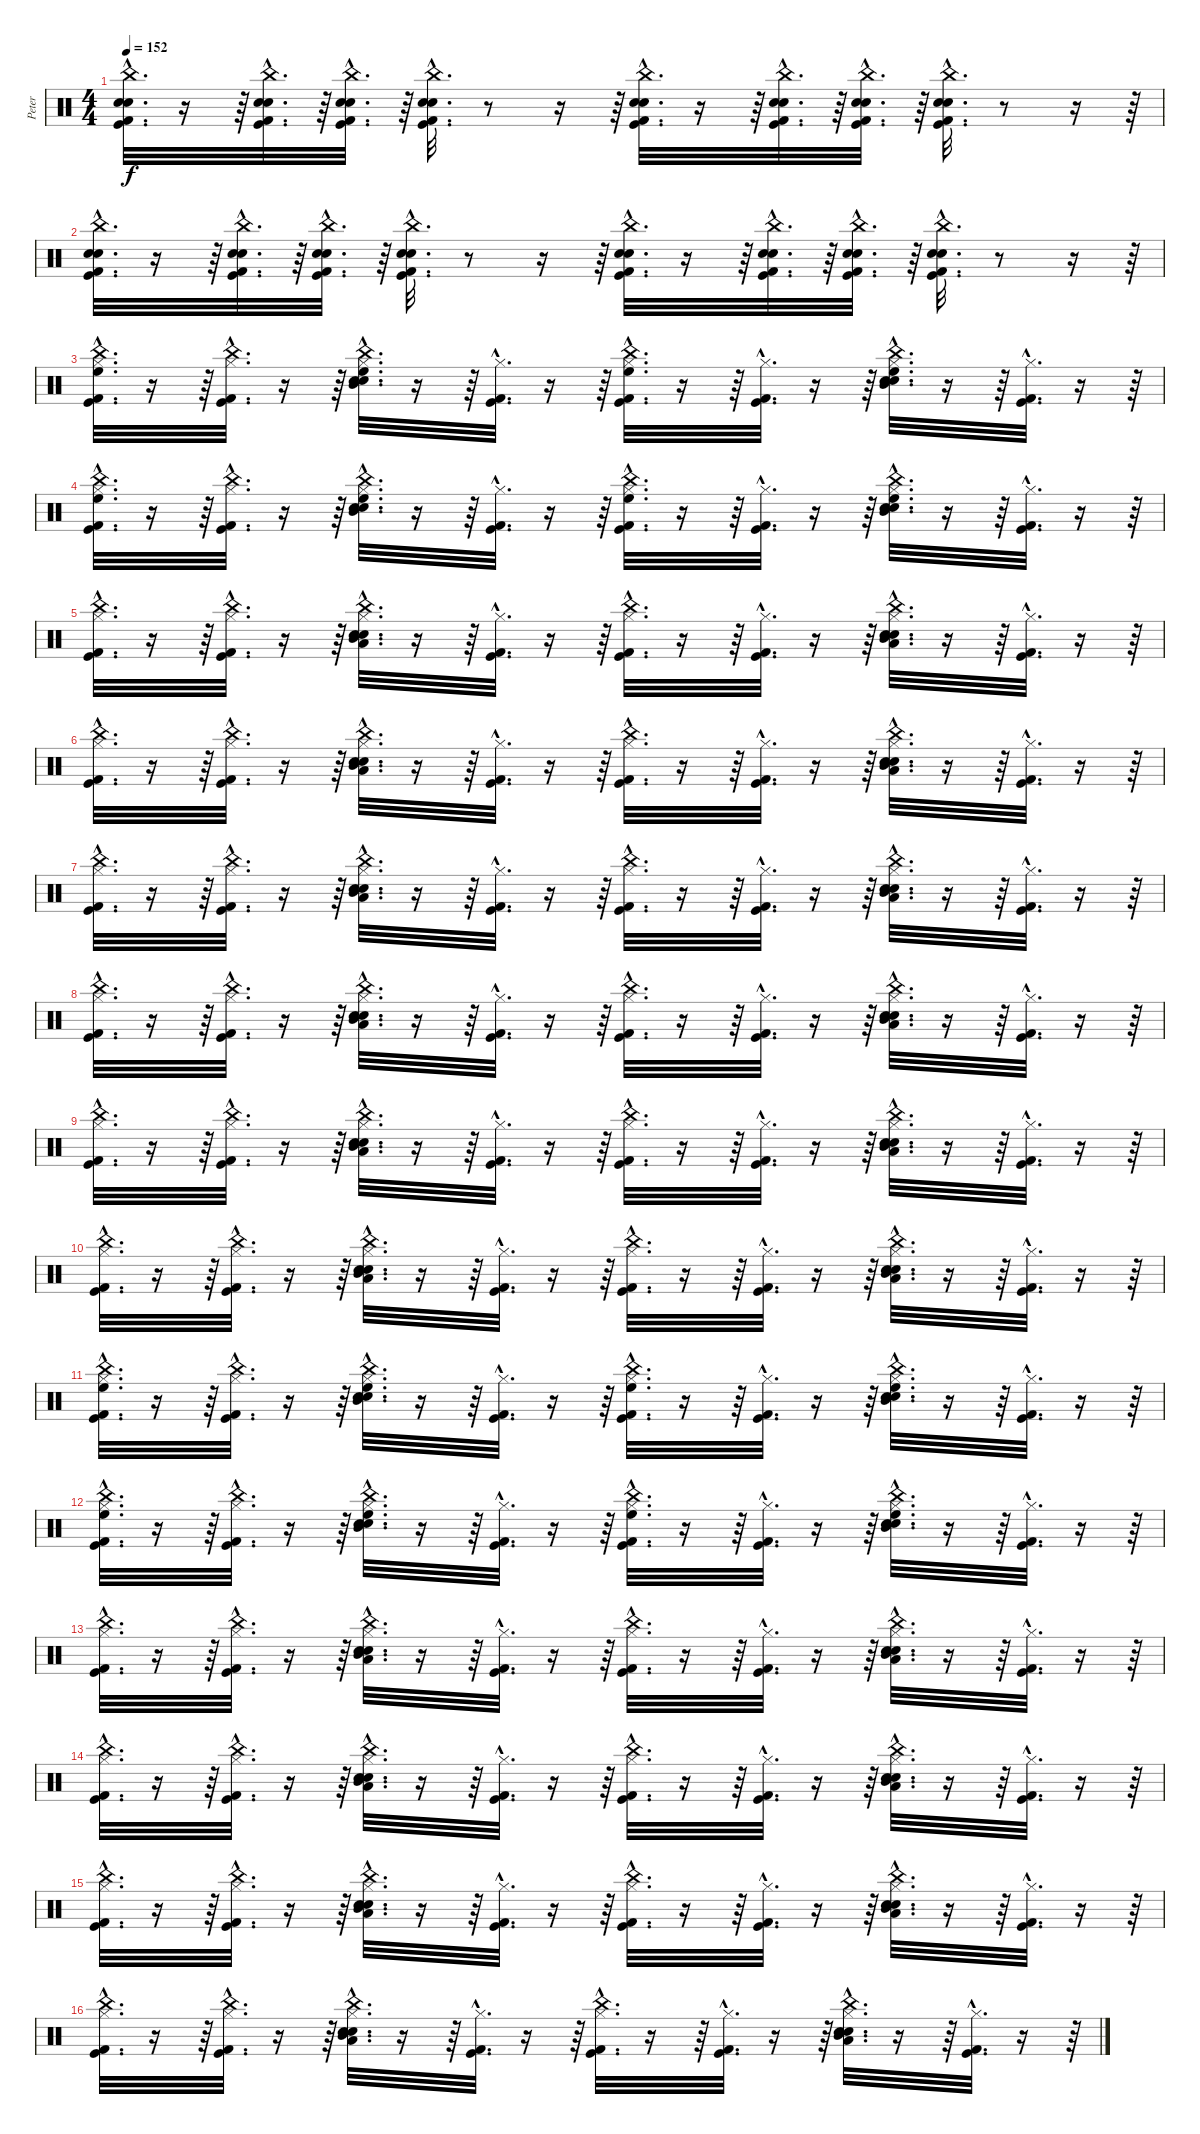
\track ("Peter" "Peter") {instrument percussion}
\staff {score}
\articulation defaults
\ts (4 4)
\tempo 152
\clef neutral
\ks c
("Electric Snare (hit)"{hac} "Snare (hit) 2"{hac} "Kick (hit) 2"{hac} "Kick (hit)"{hac} "China (hit)"{hac}).32{d dy f} r.16 r.64 ("Electric Snare (hit)"{hac} "Snare (hit) 2"{hac} "Kick (hit) 2"{hac} "Kick (hit)"{hac} "China (hit)"{hac}).32{d} r.64 ("Electric Snare (hit)"{hac} "Snare (hit) 2"{hac} "Kick (hit) 2"{hac} "Kick (hit)"{hac} "China (hit)"{hac}).32{d} r.64 ("Electric Snare (hit)"{hac} "Snare (hit) 2"{hac} "Kick (hit) 2"{hac} "Kick (hit)"{hac} "China (hit)"{hac}).32{d} r.8 r.16 r.64 ("Electric Snare (hit)"{hac} "Snare (hit) 2"{hac} "Kick (hit) 2"{hac} "Kick (hit)"{hac} "China (hit)"{hac}).32{d} r.16 r.64 ("Electric Snare (hit)"{hac} "Snare (hit) 2"{hac} "Kick (hit) 2"{hac} "Kick (hit)"{hac} "China (hit)"{hac}).32{d} r.64 ("Electric Snare (hit)"{hac} "Snare (hit) 2"{hac} "Kick (hit) 2"{hac} "Kick (hit)"{hac} "China (hit)"{hac}).32{d} r.64 ("Electric Snare (hit)"{hac} "Snare (hit) 2"{hac} "Kick (hit) 2"{hac} "Kick (hit)"{hac} "China (hit)"{hac}).32{d} r.8 r.16 r.64 |
("Electric Snare (hit)"{hac} "Snare (hit) 2"{hac} "Kick (hit) 2"{hac} "Kick (hit)"{hac} "China (hit)"{hac}).32{d} r.16 r.64 ("Electric Snare (hit)"{hac} "Snare (hit) 2"{hac} "Kick (hit) 2"{hac} "Kick (hit)"{hac} "China (hit)"{hac}).32{d} r.64 ("Electric Snare (hit)"{hac} "Snare (hit) 2"{hac} "Kick (hit) 2"{hac} "Kick (hit)"{hac} "China (hit)"{hac}).32{d} r.64 ("Electric Snare (hit)"{hac} "Snare (hit) 2"{hac} "Kick (hit) 2"{hac} "Kick (hit)"{hac} "China (hit)"{hac}).32{d} r.8 r.16 r.64 ("Electric Snare (hit)"{hac} "Snare (hit) 2"{hac} "Kick (hit) 2"{hac} "Kick (hit)"{hac} "China (hit)"{hac}).32{d} r.16 r.64 ("Electric Snare (hit)"{hac} "Snare (hit) 2"{hac} "Kick (hit) 2"{hac} "Kick (hit)"{hac} "China (hit)"{hac}).32{d} r.64 ("Electric Snare (hit)"{hac} "Snare (hit) 2"{hac} "Kick (hit) 2"{hac} "Kick (hit)"{hac} "China (hit)"{hac}).32{d} r.64 ("Electric Snare (hit)"{hac} "Snare (hit) 2"{hac} "Kick (hit) 2"{hac} "Kick (hit)"{hac} "China (hit)"{hac}).32{d} r.8 r.16 r.64 |
("China (hit)"{hac} "Kick (hit) 2"{hac} "Kick (hit)"{hac} "Hi-Hat (closed)"{hac} "High Floor Tom (hit)"{hac}).32{d} r.16 r.64 ("Kick (hit)"{hac} "Kick (hit) 2"{hac} "China (hit)"{hac} "Hi-Hat (closed)"{hac}).32{d} r.16 r.64 ("China (hit)"{hac} "Electric Snare (hit)"{hac} "Snare (hit) 2"{hac} "Hi-Hat (closed)"{hac} "Mid Tom (hit)"{hac} "High Floor Tom (hit)"{hac}).32{d} r.16 r.64 ("Kick (hit) 2"{hac} "Kick (hit)"{hac} "Hi-Hat (closed)"{hac}).32{d} r.16 r.64 ("China (hit)"{hac} "Kick (hit)"{hac} "Kick (hit) 2"{hac} "Hi-Hat (closed)"{hac} "High Floor Tom (hit)"{hac}).32{d} r.16 r.64 ("Kick (hit) 2"{hac} "Kick (hit)"{hac} "Hi-Hat (closed)"{hac}).32{d} r.16 r.64 ("China (hit)"{hac} "Electric Snare (hit)"{hac} "Snare (hit) 2"{hac} "Hi-Hat (closed)"{hac} "Mid Tom (hit)"{hac} "High Floor Tom (hit)"{hac}).32{d} r.16 r.64 ("Kick (hit) 2"{hac} "Kick (hit)"{hac} "Hi-Hat (closed)"{hac}).32{d} r.16 r.64 |
("China (hit)"{hac} "Kick (hit) 2"{hac} "Kick (hit)"{hac} "Hi-Hat (closed)"{hac} "High Floor Tom (hit)"{hac}).32{d} r.16 r.64 ("Kick (hit)"{hac} "Kick (hit) 2"{hac} "China (hit)"{hac} "Hi-Hat (closed)"{hac}).32{d} r.16 r.64 ("China (hit)"{hac} "Electric Snare (hit)"{hac} "Snare (hit) 2"{hac} "Hi-Hat (closed)"{hac} "Mid Tom (hit)"{hac} "High Floor Tom (hit)"{hac}).32{d} r.16 r.64 ("Kick (hit) 2"{hac} "Kick (hit)"{hac} "Hi-Hat (closed)"{hac}).32{d} r.16 r.64 ("China (hit)"{hac} "Kick (hit)"{hac} "Kick (hit) 2"{hac} "Hi-Hat (closed)"{hac} "High Floor Tom (hit)"{hac}).32{d} r.16 r.64 ("Kick (hit) 2"{hac} "Kick (hit)"{hac} "Hi-Hat (closed)"{hac}).32{d} r.16 r.64 ("China (hit)"{hac} "Electric Snare (hit)"{hac} "Snare (hit) 2"{hac} "Hi-Hat (closed)"{hac} "Mid Tom (hit)"{hac} "High Floor Tom (hit)"{hac}).32{d} r.16 r.64 ("Kick (hit) 2"{hac} "Kick (hit)"{hac} "Hi-Hat (closed)"{hac}).32{d} r.16 r.64 |
("China (hit)"{hac} "Kick (hit) 2"{hac} "Kick (hit)"{hac} "Hi-Hat (closed)"{hac}).32{d} r.16 r.64 ("Kick (hit)"{hac} "Kick (hit) 2"{hac} "China (hit)"{hac} "Hi-Hat (closed)"{hac}).32{d} r.16 r.64 ("China (hit)"{hac} "Electric Snare (hit)"{hac} "Snare (hit) 2"{hac} "Hi-Hat (closed)"{hac} "Mid Tom (hit)"{hac} "Low Tom (hit)"{hac}).32{d} r.16 r.64 ("Kick (hit) 2"{hac} "Kick (hit)"{hac} "Hi-Hat (closed)"{hac}).32{d} r.16 r.64 ("China (hit)"{hac} "Kick (hit)"{hac} "Kick (hit) 2"{hac} "Hi-Hat (closed)"{hac}).32{d} r.16 r.64 ("Kick (hit) 2"{hac} "Kick (hit)"{hac} "Hi-Hat (closed)"{hac}).32{d} r.16 r.64 ("China (hit)"{hac} "Electric Snare (hit)"{hac} "Snare (hit) 2"{hac} "Hi-Hat (closed)"{hac} "Mid Tom (hit)"{hac} "Low Tom (hit)"{hac}).32{d} r.16 r.64 ("Kick (hit) 2"{hac} "Kick (hit)"{hac} "Hi-Hat (closed)"{hac}).32{d} r.16 r.64 |
("China (hit)"{hac} "Kick (hit) 2"{hac} "Kick (hit)"{hac} "Hi-Hat (closed)"{hac}).32{d} r.16 r.64 ("Kick (hit)"{hac} "Kick (hit) 2"{hac} "China (hit)"{hac} "Hi-Hat (closed)"{hac}).32{d} r.16 r.64 ("China (hit)"{hac} "Electric Snare (hit)"{hac} "Snare (hit) 2"{hac} "Hi-Hat (closed)"{hac} "Mid Tom (hit)"{hac} "Low Tom (hit)"{hac}).32{d} r.16 r.64 ("Kick (hit) 2"{hac} "Kick (hit)"{hac} "Hi-Hat (closed)"{hac}).32{d} r.16 r.64 ("China (hit)"{hac} "Kick (hit)"{hac} "Kick (hit) 2"{hac} "Hi-Hat (closed)"{hac}).32{d} r.16 r.64 ("Kick (hit) 2"{hac} "Kick (hit)"{hac} "Hi-Hat (closed)"{hac}).32{d} r.16 r.64 ("China (hit)"{hac} "Electric Snare (hit)"{hac} "Snare (hit) 2"{hac} "Hi-Hat (closed)"{hac} "Mid Tom (hit)"{hac} "Low Tom (hit)"{hac}).32{d} r.16 r.64 ("Kick (hit) 2"{hac} "Kick (hit)"{hac} "Hi-Hat (closed)"{hac}).32{d} r.16 r.64 |
("China (hit)"{hac} "Kick (hit) 2"{hac} "Kick (hit)"{hac} "Hi-Hat (closed)"{hac}).32{d} r.16 r.64 ("Kick (hit)"{hac} "Kick (hit) 2"{hac} "China (hit)"{hac} "Hi-Hat (closed)"{hac}).32{d} r.16 r.64 ("China (hit)"{hac} "Electric Snare (hit)"{hac} "Snare (hit) 2"{hac} "Hi-Hat (closed)"{hac} "Mid Tom (hit)"{hac} "Low Tom (hit)"{hac}).32{d} r.16 r.64 ("Kick (hit) 2"{hac} "Kick (hit)"{hac} "Hi-Hat (closed)"{hac}).32{d} r.16 r.64 ("China (hit)"{hac} "Kick (hit)"{hac} "Kick (hit) 2"{hac} "Hi-Hat (closed)"{hac}).32{d} r.16 r.64 ("Kick (hit) 2"{hac} "Kick (hit)"{hac} "Hi-Hat (closed)"{hac}).32{d} r.16 r.64 ("China (hit)"{hac} "Electric Snare (hit)"{hac} "Snare (hit) 2"{hac} "Hi-Hat (closed)"{hac} "Mid Tom (hit)"{hac} "Low Tom (hit)"{hac}).32{d} r.16 r.64 ("Kick (hit) 2"{hac} "Kick (hit)"{hac} "Hi-Hat (closed)"{hac}).32{d} r.16 r.64 |
("China (hit)"{hac} "Kick (hit) 2"{hac} "Kick (hit)"{hac} "Hi-Hat (closed)"{hac}).32{d} r.16 r.64 ("Kick (hit)"{hac} "Kick (hit) 2"{hac} "China (hit)"{hac} "Hi-Hat (closed)"{hac}).32{d} r.16 r.64 ("China (hit)"{hac} "Electric Snare (hit)"{hac} "Snare (hit) 2"{hac} "Hi-Hat (closed)"{hac} "Mid Tom (hit)"{hac} "Low Tom (hit)"{hac}).32{d} r.16 r.64 ("Kick (hit) 2"{hac} "Kick (hit)"{hac} "Hi-Hat (closed)"{hac}).32{d} r.16 r.64 ("China (hit)"{hac} "Kick (hit)"{hac} "Kick (hit) 2"{hac} "Hi-Hat (closed)"{hac}).32{d} r.16 r.64 ("Kick (hit) 2"{hac} "Kick (hit)"{hac} "Hi-Hat (closed)"{hac}).32{d} r.16 r.64 ("China (hit)"{hac} "Electric Snare (hit)"{hac} "Snare (hit) 2"{hac} "Hi-Hat (closed)"{hac} "Mid Tom (hit)"{hac} "Low Tom (hit)"{hac}).32{d} r.16 r.64 ("Kick (hit) 2"{hac} "Kick (hit)"{hac} "Hi-Hat (closed)"{hac}).32{d} r.16 r.64 |
("China (hit)"{hac} "Kick (hit) 2"{hac} "Kick (hit)"{hac} "Hi-Hat (closed)"{hac}).32{d} r.16 r.64 ("Kick (hit)"{hac} "Kick (hit) 2"{hac} "China (hit)"{hac} "Hi-Hat (closed)"{hac}).32{d} r.16 r.64 ("China (hit)"{hac} "Electric Snare (hit)"{hac} "Snare (hit) 2"{hac} "Hi-Hat (closed)"{hac} "Mid Tom (hit)"{hac} "Low Tom (hit)"{hac}).32{d} r.16 r.64 ("Kick (hit) 2"{hac} "Kick (hit)"{hac} "Hi-Hat (closed)"{hac}).32{d} r.16 r.64 ("China (hit)"{hac} "Kick (hit)"{hac} "Kick (hit) 2"{hac} "Hi-Hat (closed)"{hac}).32{d} r.16 r.64 ("Kick (hit) 2"{hac} "Kick (hit)"{hac} "Hi-Hat (closed)"{hac}).32{d} r.16 r.64 ("China (hit)"{hac} "Electric Snare (hit)"{hac} "Snare (hit) 2"{hac} "Hi-Hat (closed)"{hac} "Mid Tom (hit)"{hac} "Low Tom (hit)"{hac}).32{d} r.16 r.64 ("Kick (hit) 2"{hac} "Kick (hit)"{hac} "Hi-Hat (closed)"{hac}).32{d} r.16 r.64 |
("China (hit)"{hac} "Kick (hit) 2"{hac} "Kick (hit)"{hac} "Hi-Hat (closed)"{hac}).32{d} r.16 r.64 ("Kick (hit)"{hac} "Kick (hit) 2"{hac} "China (hit)"{hac} "Hi-Hat (closed)"{hac}).32{d} r.16 r.64 ("China (hit)"{hac} "Electric Snare (hit)"{hac} "Snare (hit) 2"{hac} "Hi-Hat (closed)"{hac} "Mid Tom (hit)"{hac} "Low Tom (hit)"{hac}).32{d} r.16 r.64 ("Kick (hit) 2"{hac} "Kick (hit)"{hac} "Hi-Hat (closed)"{hac}).32{d} r.16 r.64 ("China (hit)"{hac} "Kick (hit)"{hac} "Kick (hit) 2"{hac} "Hi-Hat (closed)"{hac}).32{d} r.16 r.64 ("Kick (hit) 2"{hac} "Kick (hit)"{hac} "Hi-Hat (closed)"{hac}).32{d} r.16 r.64 ("China (hit)"{hac} "Electric Snare (hit)"{hac} "Snare (hit) 2"{hac} "Hi-Hat (closed)"{hac} "Mid Tom (hit)"{hac} "Low Tom (hit)"{hac}).32{d} r.16 r.64 ("Kick (hit) 2"{hac} "Kick (hit)"{hac} "Hi-Hat (closed)"{hac}).32{d} r.16 r.64 |
("China (hit)"{hac} "Kick (hit) 2"{hac} "Kick (hit)"{hac} "Hi-Hat (closed)"{hac} "High Floor Tom (hit)"{hac}).32{d} r.16 r.64 ("Kick (hit)"{hac} "Kick (hit) 2"{hac} "China (hit)"{hac} "Hi-Hat (closed)"{hac}).32{d} r.16 r.64 ("China (hit)"{hac} "Electric Snare (hit)"{hac} "Snare (hit) 2"{hac} "Hi-Hat (closed)"{hac} "Mid Tom (hit)"{hac} "High Floor Tom (hit)"{hac}).32{d} r.16 r.64 ("Kick (hit) 2"{hac} "Kick (hit)"{hac} "Hi-Hat (closed)"{hac}).32{d} r.16 r.64 ("China (hit)"{hac} "Kick (hit)"{hac} "Kick (hit) 2"{hac} "Hi-Hat (closed)"{hac} "High Floor Tom (hit)"{hac}).32{d} r.16 r.64 ("Kick (hit) 2"{hac} "Kick (hit)"{hac} "Hi-Hat (closed)"{hac}).32{d} r.16 r.64 ("China (hit)"{hac} "Electric Snare (hit)"{hac} "Snare (hit) 2"{hac} "Hi-Hat (closed)"{hac} "Mid Tom (hit)"{hac} "High Floor Tom (hit)"{hac}).32{d} r.16 r.64 ("Kick (hit) 2"{hac} "Kick (hit)"{hac} "Hi-Hat (closed)"{hac}).32{d} r.16 r.64 |
("China (hit)"{hac} "Kick (hit) 2"{hac} "Kick (hit)"{hac} "Hi-Hat (closed)"{hac} "High Floor Tom (hit)"{hac}).32{d} r.16 r.64 ("Kick (hit)"{hac} "Kick (hit) 2"{hac} "China (hit)"{hac} "Hi-Hat (closed)"{hac}).32{d} r.16 r.64 ("China (hit)"{hac} "Electric Snare (hit)"{hac} "Snare (hit) 2"{hac} "Hi-Hat (closed)"{hac} "Mid Tom (hit)"{hac} "High Floor Tom (hit)"{hac}).32{d} r.16 r.64 ("Kick (hit) 2"{hac} "Kick (hit)"{hac} "Hi-Hat (closed)"{hac}).32{d} r.16 r.64 ("China (hit)"{hac} "Kick (hit)"{hac} "Kick (hit) 2"{hac} "Hi-Hat (closed)"{hac} "High Floor Tom (hit)"{hac}).32{d} r.16 r.64 ("Kick (hit) 2"{hac} "Kick (hit)"{hac} "Hi-Hat (closed)"{hac}).32{d} r.16 r.64 ("China (hit)"{hac} "Electric Snare (hit)"{hac} "Snare (hit) 2"{hac} "Hi-Hat (closed)"{hac} "Mid Tom (hit)"{hac} "High Floor Tom (hit)"{hac}).32{d} r.16 r.64 ("Kick (hit) 2"{hac} "Kick (hit)"{hac} "Hi-Hat (closed)"{hac}).32{d} r.16 r.64 |
("China (hit)"{hac} "Kick (hit) 2"{hac} "Kick (hit)"{hac} "Hi-Hat (closed)"{hac}).32{d} r.16 r.64 ("Kick (hit)"{hac} "Kick (hit) 2"{hac} "China (hit)"{hac} "Hi-Hat (closed)"{hac}).32{d} r.16 r.64 ("China (hit)"{hac} "Electric Snare (hit)"{hac} "Snare (hit) 2"{hac} "Hi-Hat (closed)"{hac} "Mid Tom (hit)"{hac} "Low Tom (hit)"{hac}).32{d} r.16 r.64 ("Kick (hit) 2"{hac} "Kick (hit)"{hac} "Hi-Hat (closed)"{hac}).32{d} r.16 r.64 ("China (hit)"{hac} "Kick (hit)"{hac} "Kick (hit) 2"{hac} "Hi-Hat (closed)"{hac}).32{d} r.16 r.64 ("Kick (hit) 2"{hac} "Kick (hit)"{hac} "Hi-Hat (closed)"{hac}).32{d} r.16 r.64 ("China (hit)"{hac} "Electric Snare (hit)"{hac} "Snare (hit) 2"{hac} "Hi-Hat (closed)"{hac} "Mid Tom (hit)"{hac} "Low Tom (hit)"{hac}).32{d} r.16 r.64 ("Kick (hit) 2"{hac} "Kick (hit)"{hac} "Hi-Hat (closed)"{hac}).32{d} r.16 r.64 |
("China (hit)"{hac} "Kick (hit) 2"{hac} "Kick (hit)"{hac} "Hi-Hat (closed)"{hac}).32{d} r.16 r.64 ("Kick (hit)"{hac} "Kick (hit) 2"{hac} "China (hit)"{hac} "Hi-Hat (closed)"{hac}).32{d} r.16 r.64 ("China (hit)"{hac} "Electric Snare (hit)"{hac} "Snare (hit) 2"{hac} "Hi-Hat (closed)"{hac} "Mid Tom (hit)"{hac} "Low Tom (hit)"{hac}).32{d} r.16 r.64 ("Kick (hit) 2"{hac} "Kick (hit)"{hac} "Hi-Hat (closed)"{hac}).32{d} r.16 r.64 ("China (hit)"{hac} "Kick (hit)"{hac} "Kick (hit) 2"{hac} "Hi-Hat (closed)"{hac}).32{d} r.16 r.64 ("Kick (hit) 2"{hac} "Kick (hit)"{hac} "Hi-Hat (closed)"{hac}).32{d} r.16 r.64 ("China (hit)"{hac} "Electric Snare (hit)"{hac} "Snare (hit) 2"{hac} "Hi-Hat (closed)"{hac} "Mid Tom (hit)"{hac} "Low Tom (hit)"{hac}).32{d} r.16 r.64 ("Kick (hit) 2"{hac} "Kick (hit)"{hac} "Hi-Hat (closed)"{hac}).32{d} r.16 r.64 |
("China (hit)"{hac} "Kick (hit) 2"{hac} "Kick (hit)"{hac} "Hi-Hat (closed)"{hac}).32{d} r.16 r.64 ("Kick (hit)"{hac} "Kick (hit) 2"{hac} "China (hit)"{hac} "Hi-Hat (closed)"{hac}).32{d} r.16 r.64 ("China (hit)"{hac} "Electric Snare (hit)"{hac} "Snare (hit) 2"{hac} "Hi-Hat (closed)"{hac} "Mid Tom (hit)"{hac} "Low Tom (hit)"{hac}).32{d} r.16 r.64 ("Kick (hit) 2"{hac} "Kick (hit)"{hac} "Hi-Hat (closed)"{hac}).32{d} r.16 r.64 ("China (hit)"{hac} "Kick (hit)"{hac} "Kick (hit) 2"{hac} "Hi-Hat (closed)"{hac}).32{d} r.16 r.64 ("Kick (hit) 2"{hac} "Kick (hit)"{hac} "Hi-Hat (closed)"{hac}).32{d} r.16 r.64 ("China (hit)"{hac} "Electric Snare (hit)"{hac} "Snare (hit) 2"{hac} "Hi-Hat (closed)"{hac} "Mid Tom (hit)"{hac} "Low Tom (hit)"{hac}).32{d} r.16 r.64 ("Kick (hit) 2"{hac} "Kick (hit)"{hac} "Hi-Hat (closed)"{hac}).32{d} r.16 r.64 |
("China (hit)"{hac} "Kick (hit) 2"{hac} "Kick (hit)"{hac} "Hi-Hat (closed)"{hac}).32{d} r.16 r.64 ("Kick (hit)"{hac} "Kick (hit) 2"{hac} "China (hit)"{hac} "Hi-Hat (closed)"{hac}).32{d} r.16 r.64 ("China (hit)"{hac} "Electric Snare (hit)"{hac} "Snare (hit) 2"{hac} "Hi-Hat (closed)"{hac} "Mid Tom (hit)"{hac} "Low Tom (hit)"{hac}).32{d} r.16 r.64 ("Kick (hit) 2"{hac} "Kick (hit)"{hac} "Hi-Hat (closed)"{hac}).32{d} r.16 r.64 ("China (hit)"{hac} "Kick (hit)"{hac} "Kick (hit) 2"{hac} "Hi-Hat (closed)"{hac}).32{d} r.16 r.64 ("Kick (hit) 2"{hac} "Kick (hit)"{hac} "Hi-Hat (closed)"{hac}).32{d} r.16 r.64 ("China (hit)"{hac} "Electric Snare (hit)"{hac} "Snare (hit) 2"{hac} "Hi-Hat (closed)"{hac} "Mid Tom (hit)"{hac} "Low Tom (hit)"{hac}).32{d} r.16 r.64 ("Kick (hit) 2"{hac} "Kick (hit)"{hac} "Hi-Hat (closed)"{hac}).32{d} r.16 r.64
